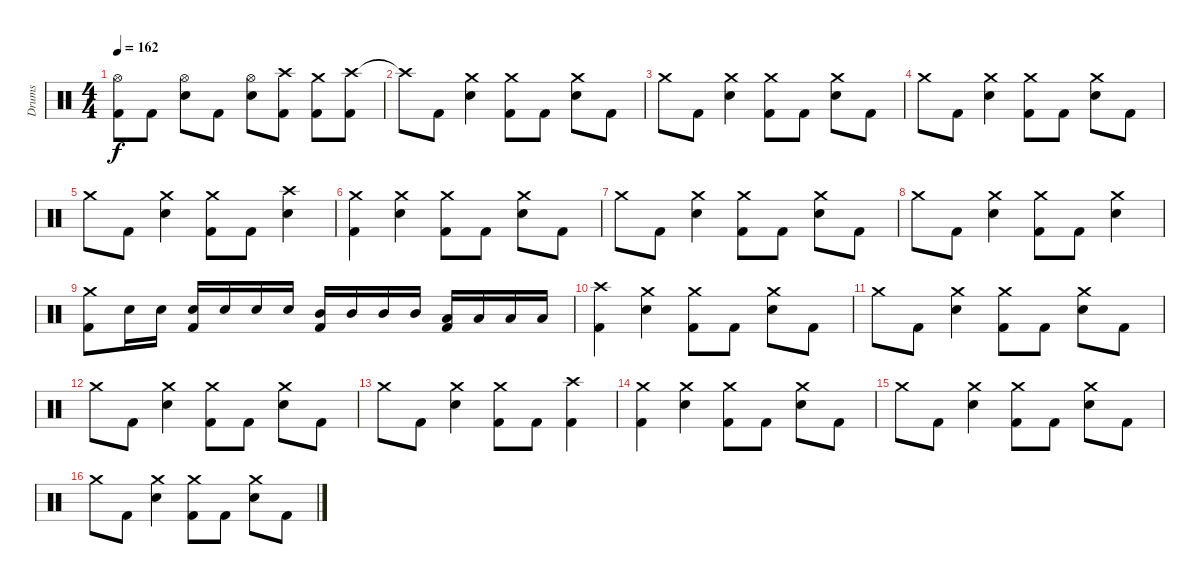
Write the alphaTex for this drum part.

\track ("Drums" "Drums") {instrument percussion}
\staff {score}
\articulation defaults
\ts (4 4)
\tempo 162
\clef neutral
\ks c
("Hi-Hat (open)" "Kick (hit) 2").8{dy f} "Kick (hit) 2".8 ("Hi-Hat (open)" "Snare (hit) 2").8 "Kick (hit) 2".8 ("Hi-Hat (open)" "Snare (hit) 2").8 ("Crash high (hit)" "Kick (hit) 2").8 ("Crash medium (hit)" "Kick (hit) 2").8 ("Crash high (hit)" "Kick (hit) 2").8 |
"Crash high (hit)"{t}.8 "Kick (hit) 2".8 ("Crash medium (hit)" "Snare (hit) 2").4 ("Crash medium (hit)" "Kick (hit) 2").8 "Kick (hit) 2".8 ("Crash medium (hit)" "Snare (hit) 2").8 "Kick (hit) 2".8 |
"Crash medium (hit)".8 "Kick (hit) 2".8 ("Crash medium (hit)" "Snare (hit) 2").4 ("Crash medium (hit)" "Kick (hit) 2").8 "Kick (hit) 2".8 ("Crash medium (hit)" "Snare (hit) 2").8 "Kick (hit) 2".8 |
"Crash medium (hit)".8 "Kick (hit) 2".8 ("Crash medium (hit)" "Snare (hit) 2").4 ("Crash medium (hit)" "Kick (hit) 2").8 "Kick (hit) 2".8 ("Crash medium (hit)" "Snare (hit) 2").8 "Kick (hit) 2".8 |
"Crash medium (hit)".8 "Kick (hit) 2".8 ("Crash medium (hit)" "Snare (hit) 2").4 ("Crash medium (hit)" "Kick (hit) 2").8 "Kick (hit) 2".8 ("Crash high (hit)" "Snare (hit) 2").4 |
("Crash medium (hit)" "Kick (hit) 2").4 ("Crash medium (hit)" "Snare (hit) 2").4 ("Crash medium (hit)" "Kick (hit) 2").8 "Kick (hit) 2".8 ("Crash medium (hit)" "Snare (hit) 2").8 "Kick (hit) 2".8 |
"Crash medium (hit)".8 "Kick (hit) 2".8 ("Crash medium (hit)" "Snare (hit) 2").4 ("Crash medium (hit)" "Kick (hit) 2").8 "Kick (hit) 2".8 ("Crash medium (hit)" "Snare (hit) 2").8 "Kick (hit) 2".8 |
"Crash medium (hit)".8 "Kick (hit) 2".8 ("Crash medium (hit)" "Snare (hit) 2").4 ("Crash medium (hit)" "Kick (hit) 2").8 "Kick (hit) 2".8 ("Crash medium (hit)" "Snare (hit) 2").4 |
("Crash medium (hit)" "Kick (hit) 2").8 "Snare (hit) 2".16 "Snare (hit) 2".16 ("Snare (hit) 2" "Kick (hit) 2").16 "Snare (hit) 2".16 "Snare (hit) 2".16 "Snare (hit) 2".16 ("Mid Tom (hit)" "Kick (hit) 2").16 "Mid Tom (hit)".16 "Mid Tom (hit)".16 "Mid Tom (hit)".16 ("Low Tom (hit)" "Kick (hit) 2").16 "Low Tom (hit)".16 "Low Tom (hit)".16 "Low Tom (hit)".16 |
("Crash high (hit)" "Kick (hit) 2").4 ("Crash medium (hit)" "Snare (hit) 2").4 ("Crash medium (hit)" "Kick (hit) 2").8 "Kick (hit) 2".8 ("Crash medium (hit)" "Snare (hit) 2").8 "Kick (hit) 2".8 |
"Crash medium (hit)".8 "Kick (hit) 2".8 ("Crash medium (hit)" "Snare (hit) 2").4 ("Crash medium (hit)" "Kick (hit) 2").8 "Kick (hit) 2".8 ("Crash medium (hit)" "Snare (hit) 2").8 "Kick (hit) 2".8 |
"Crash medium (hit)".8 "Kick (hit) 2".8 ("Crash medium (hit)" "Snare (hit) 2").4 ("Crash medium (hit)" "Kick (hit) 2").8 "Kick (hit) 2".8 ("Crash medium (hit)" "Snare (hit) 2").8 "Kick (hit) 2".8 |
"Crash medium (hit)".8 "Kick (hit) 2".8 ("Crash medium (hit)" "Snare (hit) 2").4 ("Crash medium (hit)" "Kick (hit) 2").8 "Kick (hit) 2".8 ("Crash high (hit)" "Kick (hit) 2").4 |
("Crash medium (hit)" "Kick (hit) 2").4 ("Crash medium (hit)" "Snare (hit) 2").4 ("Crash medium (hit)" "Kick (hit) 2").8 "Kick (hit) 2".8 ("Crash medium (hit)" "Snare (hit) 2").8 "Kick (hit) 2".8 |
"Crash medium (hit)".8 "Kick (hit) 2".8 ("Crash medium (hit)" "Snare (hit) 2").4 ("Crash medium (hit)" "Kick (hit) 2").8 "Kick (hit) 2".8 ("Crash medium (hit)" "Snare (hit) 2").8 "Kick (hit) 2".8 |
"Crash medium (hit)".8 "Kick (hit) 2".8 ("Crash medium (hit)" "Snare (hit) 2").4 ("Crash medium (hit)" "Kick (hit) 2").8 "Kick (hit) 2".8 ("Crash medium (hit)" "Snare (hit) 2").8 "Kick (hit) 2".8
